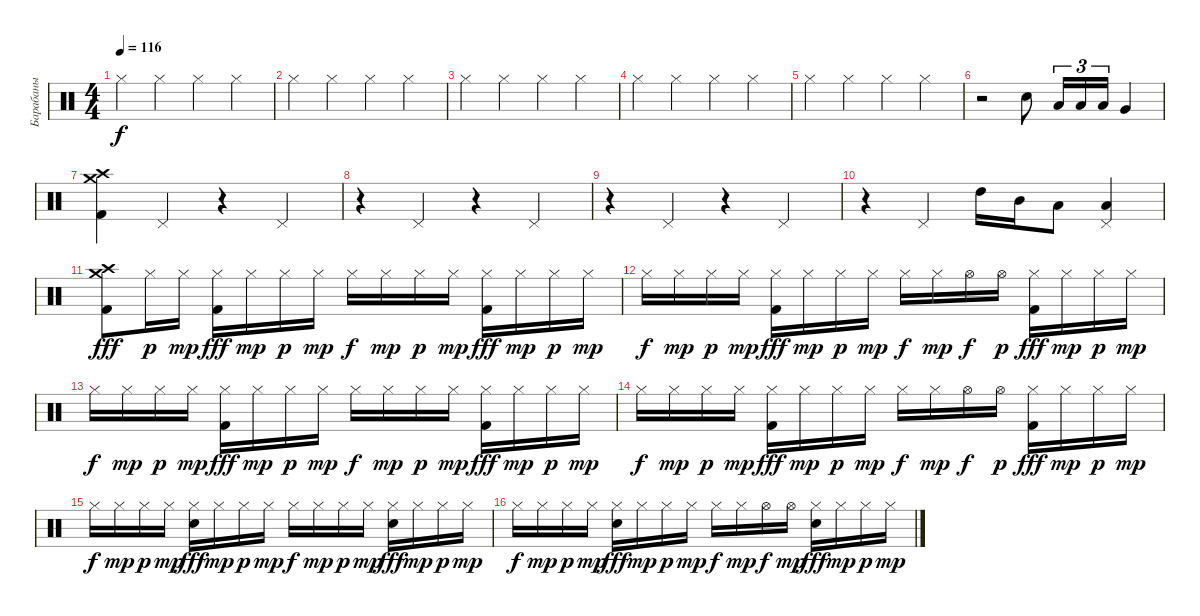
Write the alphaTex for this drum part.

\track ("Барабаны" "Барабаны") {instrument percussion}
\staff {score}
\articulation defaults
\ts (4 4)
\tempo 116
\clef neutral
\ks c "Hi-Hat (closed)".4{dy f} "Hi-Hat (closed)".4 "Hi-Hat (closed)".4 "Hi-Hat (closed)".4
|
"Hi-Hat (closed)".4 "Hi-Hat (closed)".4 "Hi-Hat (closed)".4 "Hi-Hat (closed)".4 |
"Hi-Hat (closed)".4 "Hi-Hat (closed)".4 "Hi-Hat (closed)".4 "Hi-Hat (closed)".4 |
"Hi-Hat (closed)".4 "Hi-Hat (closed)".4 "Hi-Hat (closed)".4 "Hi-Hat (closed)".4 |
"Hi-Hat (closed)".4 "Hi-Hat (closed)".4 "Hi-Hat (closed)".4 "Hi-Hat (closed)".4 |
r.2 "Electric Snare (hit)".8{volume 16} "Low Tom (hit)".16{tu (3 2)} "Low Tom (hit)".16{tu (3 2)} "Low Tom (hit)".16{tu (3 2)} "Very Low Tom (hit)".4 |
("Crash high (hit)" "Crash medium (hit)" "Kick (hit) 2").4 "Pedal Hi-Hat (hit)".4 r.4 "Pedal Hi-Hat (hit)".4 |
r.4 "Pedal Hi-Hat (hit)".4 r.4 "Pedal Hi-Hat (hit)".4 |
r.4 "Pedal Hi-Hat (hit)".4 r.4 "Pedal Hi-Hat (hit)".4 |
r.4 "Pedal Hi-Hat (hit)".4 "High Tom (hit)".16 "Mid Tom (hit)".16 "Low Tom (hit)".8 ("Low Tom (hit)" "Pedal Hi-Hat (hit)").4 |
("Crash high (hit)" "Crash medium (hit)" "Kick (hit) 2").8{dy fff} "Hi-Hat (closed)".16{dy p} "Hi-Hat (closed)".16{dy mp} ("Hi-Hat (closed)" "Kick (hit) 2").16{dy fff} "Hi-Hat (closed)".16{dy mp} "Hi-Hat (closed)".16{dy p} "Hi-Hat (closed)".16{dy mp} "Hi-Hat (closed)".16{dy f} "Hi-Hat (closed)".16{dy mp} "Hi-Hat (closed)".16{dy p} "Hi-Hat (closed)".16{dy mp} ("Hi-Hat (closed)" "Kick (hit) 2").16{dy fff} "Hi-Hat (closed)".16{dy mp} "Hi-Hat (closed)".16{dy p} "Hi-Hat (closed)".16{dy mp} |
"Hi-Hat (closed)".16{dy f} "Hi-Hat (closed)".16{dy mp} "Hi-Hat (closed)".16{dy p} "Hi-Hat (closed)".16{dy mp} ("Hi-Hat (closed)" "Kick (hit) 2").16{dy fff} "Hi-Hat (closed)".16{dy mp} "Hi-Hat (closed)".16{dy p} "Hi-Hat (closed)".16{dy mp} "Hi-Hat (closed)".16{dy f} "Hi-Hat (closed)".16{dy mp} "Hi-Hat (open)".16{dy f} "Hi-Hat (open)".16{dy p} ("Hi-Hat (closed)" "Kick (hit) 2").16{dy fff} "Hi-Hat (closed)".16{dy mp} "Hi-Hat (closed)".16{dy p} "Hi-Hat (closed)".16{dy mp} |
"Hi-Hat (closed)".16{dy f} "Hi-Hat (closed)".16{dy mp} "Hi-Hat (closed)".16{dy p} "Hi-Hat (closed)".16{dy mp} ("Hi-Hat (closed)" "Kick (hit) 2").16{dy fff} "Hi-Hat (closed)".16{dy mp} "Hi-Hat (closed)".16{dy p} "Hi-Hat (closed)".16{dy mp} "Hi-Hat (closed)".16{dy f} "Hi-Hat (closed)".16{dy mp} "Hi-Hat (closed)".16{dy p} "Hi-Hat (closed)".16{dy mp} ("Hi-Hat (closed)" "Kick (hit) 2").16{dy fff} "Hi-Hat (closed)".16{dy mp} "Hi-Hat (closed)".16{dy p} "Hi-Hat (closed)".16{dy mp} |
"Hi-Hat (closed)".16{dy f} "Hi-Hat (closed)".16{dy mp} "Hi-Hat (closed)".16{dy p} "Hi-Hat (closed)".16{dy mp} ("Hi-Hat (closed)" "Kick (hit) 2").16{dy fff} "Hi-Hat (closed)".16{dy mp} "Hi-Hat (closed)".16{dy p} "Hi-Hat (closed)".16{dy mp} "Hi-Hat (closed)".16{dy f} "Hi-Hat (closed)".16{dy mp} "Hi-Hat (open)".16{dy f} "Hi-Hat (open)".16{dy p} ("Hi-Hat (closed)" "Kick (hit) 2").16{dy fff} "Hi-Hat (closed)".16{dy mp} "Hi-Hat (closed)".16{dy p} "Hi-Hat (closed)".16{dy mp} |
"Hi-Hat (closed)".16{dy f} "Hi-Hat (closed)".16{dy mp} "Hi-Hat (closed)".16{dy p} "Hi-Hat (closed)".16{dy mp} ("Hi-Hat (closed)" "Electric Snare (hit)").16{dy fff} "Hi-Hat (closed)".16{dy mp} "Hi-Hat (closed)".16{dy p} "Hi-Hat (closed)".16{dy mp} "Hi-Hat (closed)".16{dy f} "Hi-Hat (closed)".16{dy mp} "Hi-Hat (closed)".16{dy p} "Hi-Hat (closed)".16{dy mp} ("Hi-Hat (closed)" "Electric Snare (hit)").16{dy fff} "Hi-Hat (closed)".16{dy mp} "Hi-Hat (closed)".16{dy p} "Hi-Hat (closed)".16{dy mp} |
"Hi-Hat (closed)".16{dy f} "Hi-Hat (closed)".16{dy mp} "Hi-Hat (closed)".16{dy p} "Hi-Hat (closed)".16{dy mp} ("Hi-Hat (closed)" "Electric Snare (hit)").16{dy fff} "Hi-Hat (closed)".16{dy mp} "Hi-Hat (closed)".16{dy p} "Hi-Hat (closed)".16{dy mp} "Hi-Hat (closed)".16{dy f} "Hi-Hat (closed)".16{dy mp} "Hi-Hat (open)".16{dy f} "Hi-Hat (open)".16{dy mp} ("Hi-Hat (closed)" "Electric Snare (hit)").16{dy fff} "Hi-Hat (closed)".16{dy mp} "Hi-Hat (closed)".16{dy p} "Hi-Hat (closed)".16{dy mp}
